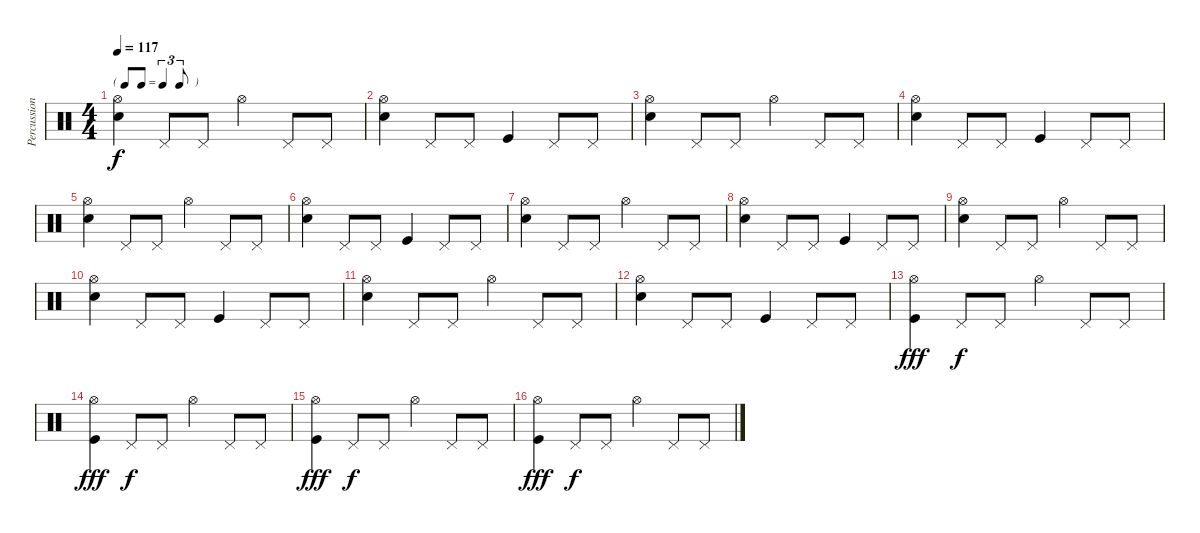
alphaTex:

\track ("Percussions" "Percussion") {instrument percussion}
\staff {score}
\articulation defaults
\ts (4 4)
\tf triplet8th
\tempo 117
\clef neutral
\ks c
("Hi-Hat (open)" "Snare (hit) 2").4{dy f} "Pedal Hi-Hat (hit)".8 "Pedal Hi-Hat (hit)".8 "Hi-Hat (open)".4 "Pedal Hi-Hat (hit)".8 "Pedal Hi-Hat (hit)".8 |
("Hi-Hat (open)" "Snare (hit) 2").4 "Pedal Hi-Hat (hit)".8 "Pedal Hi-Hat (hit)".8 "Kick (hit)".4 "Pedal Hi-Hat (hit)".8 "Pedal Hi-Hat (hit)".8 |
("Hi-Hat (open)" "Snare (hit) 2").4 "Pedal Hi-Hat (hit)".8 "Pedal Hi-Hat (hit)".8 "Hi-Hat (open)".4 "Pedal Hi-Hat (hit)".8 "Pedal Hi-Hat (hit)".8 |
("Hi-Hat (open)" "Snare (hit) 2").4 "Pedal Hi-Hat (hit)".8 "Pedal Hi-Hat (hit)".8 "Kick (hit)".4 "Pedal Hi-Hat (hit)".8 "Pedal Hi-Hat (hit)".8 |
("Hi-Hat (open)" "Snare (hit) 2").4 "Pedal Hi-Hat (hit)".8 "Pedal Hi-Hat (hit)".8 "Hi-Hat (open)".4 "Pedal Hi-Hat (hit)".8 "Pedal Hi-Hat (hit)".8 |
("Hi-Hat (open)" "Snare (hit) 2").4 "Pedal Hi-Hat (hit)".8 "Pedal Hi-Hat (hit)".8 "Kick (hit)".4 "Pedal Hi-Hat (hit)".8 "Pedal Hi-Hat (hit)".8 |
("Hi-Hat (open)" "Snare (hit) 2").4 "Pedal Hi-Hat (hit)".8 "Pedal Hi-Hat (hit)".8 "Hi-Hat (open)".4 "Pedal Hi-Hat (hit)".8 "Pedal Hi-Hat (hit)".8 |
("Hi-Hat (open)" "Snare (hit) 2").4 "Pedal Hi-Hat (hit)".8 "Pedal Hi-Hat (hit)".8 "Kick (hit)".4 "Pedal Hi-Hat (hit)".8 "Pedal Hi-Hat (hit)".8 |
("Hi-Hat (open)" "Snare (hit) 2").4 "Pedal Hi-Hat (hit)".8 "Pedal Hi-Hat (hit)".8 "Hi-Hat (open)".4 "Pedal Hi-Hat (hit)".8 "Pedal Hi-Hat (hit)".8 |
("Hi-Hat (open)" "Snare (hit) 2").4 "Pedal Hi-Hat (hit)".8 "Pedal Hi-Hat (hit)".8 "Kick (hit)".4 "Pedal Hi-Hat (hit)".8 "Pedal Hi-Hat (hit)".8 |
("Hi-Hat (open)" "Snare (hit) 2").4 "Pedal Hi-Hat (hit)".8 "Pedal Hi-Hat (hit)".8 "Hi-Hat (open)".4 "Pedal Hi-Hat (hit)".8 "Pedal Hi-Hat (hit)".8 |
("Hi-Hat (open)" "Snare (hit) 2").4 "Pedal Hi-Hat (hit)".8 "Pedal Hi-Hat (hit)".8 "Kick (hit)".4 "Pedal Hi-Hat (hit)".8 "Pedal Hi-Hat (hit)".8 |
("Hi-Hat (open)" "Kick (hit)").4{dy fff} "Pedal Hi-Hat (hit)".8{dy f} "Pedal Hi-Hat (hit)".8 "Hi-Hat (open)".4 "Pedal Hi-Hat (hit)".8 "Pedal Hi-Hat (hit)".8 |
("Hi-Hat (open)" "Kick (hit)").4{dy fff} "Pedal Hi-Hat (hit)".8{dy f} "Pedal Hi-Hat (hit)".8 "Hi-Hat (open)".4 "Pedal Hi-Hat (hit)".8 "Pedal Hi-Hat (hit)".8 |
("Hi-Hat (open)" "Kick (hit)").4{dy fff} "Pedal Hi-Hat (hit)".8{dy f} "Pedal Hi-Hat (hit)".8 "Hi-Hat (open)".4 "Pedal Hi-Hat (hit)".8 "Pedal Hi-Hat (hit)".8 |
("Hi-Hat (open)" "Kick (hit)").4{dy fff} "Pedal Hi-Hat (hit)".8{dy f} "Pedal Hi-Hat (hit)".8 "Hi-Hat (open)".4 "Pedal Hi-Hat (hit)".8 "Pedal Hi-Hat (hit)".8
